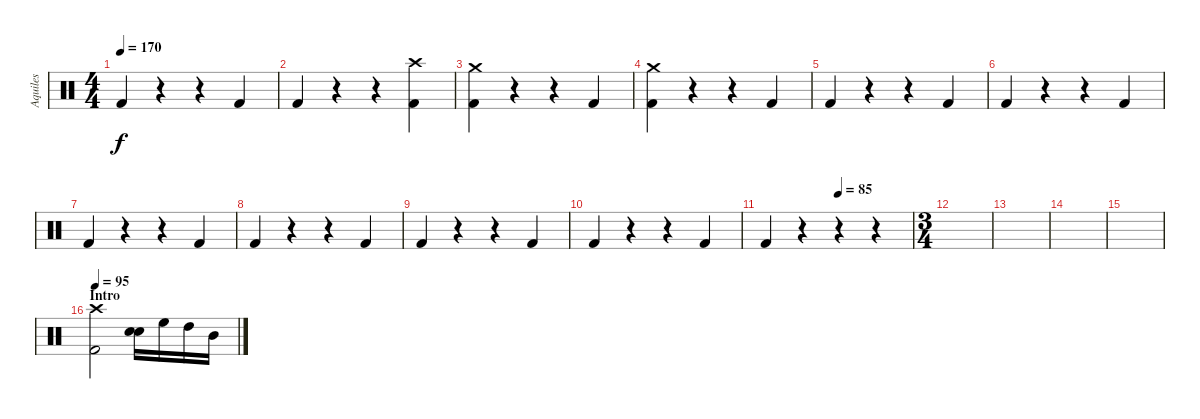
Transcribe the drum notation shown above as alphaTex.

\track ("Aquiles" "Aquiles") {instrument percussion}
\staff {score}
\articulation defaults
\ts (4 4)
\tempo 170
\clef neutral
\ks c "Kick (hit) 2".4{dy f}
r.4 r.4 "Kick (hit) 2".4 |
"Kick (hit) 2".4 r.4 r.4 ("Crash high (hit)" "Kick (hit) 2").4 |
("Crash medium (hit)" "Kick (hit) 2").4 r.4 r.4 "Kick (hit) 2".4 |
("Crash medium (hit)" "Kick (hit) 2").4 r.4 r.4 "Kick (hit) 2".4 |
"Kick (hit) 2".4 r.4 r.4 "Kick (hit) 2".4 |
"Kick (hit) 2".4 r.4 r.4 "Kick (hit) 2".4 |
"Kick (hit) 2".4 r.4 r.4 "Kick (hit) 2".4 |
"Kick (hit) 2".4 r.4 r.4 "Kick (hit) 2".4 |
"Kick (hit) 2".4 r.4 r.4 "Kick (hit) 2".4 |
"Kick (hit) 2".4 r.4 r.4 "Kick (hit) 2".4 |
\tempo (85 0.5)
"Kick (hit) 2".4 r.4 r.4 r.4 |
\ts (3 4)
|
|
|
|
\section ("" "Intro")
\tempo 95
("Crash high (hit)" "Kick (hit) 2").2 ("Electric Snare (hit)" "Snare (hit) 2").16 "High Floor Tom (hit)".16 "High Tom (hit)".16 "Mid Tom (hit)".16
